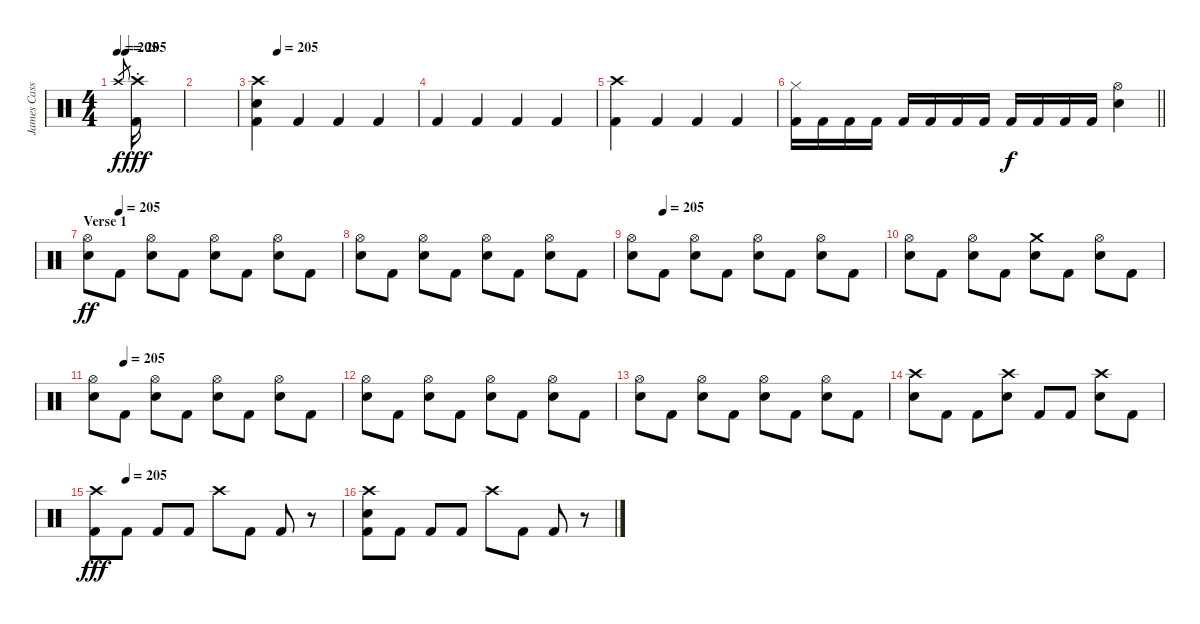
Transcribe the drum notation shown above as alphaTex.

\track ("James Cassels" "James Cass") {instrument percussion}
\staff {score}
\articulation defaults
\ts (4 4)
\tempo 205
\tempo (205 0.125)
\clef neutral
\ks c "Crash high (hit)".8{gr dy f}
("Crash high (hit)"{st} "Kick (hit) 2").16{dy fff} |
|
\tempo (205 0.125)
("Crash high (hit)" "Electric Snare (hit)" "Kick (hit) 2").4 "Kick (hit) 2".4 "Kick (hit) 2".4 "Kick (hit) 2".4 |
"Kick (hit) 2".4 "Kick (hit) 2".4 "Kick (hit) 2".4 "Kick (hit) 2".4 |
("Crash high (hit)" "Kick (hit) 2").4 "Kick (hit) 2".4 "Kick (hit) 2".4 "Kick (hit) 2".4 |
\barLineRight lightlight
("Hi-Hat (closed)" "Kick (hit) 2").16 "Kick (hit) 2".16 "Kick (hit) 2".16 "Kick (hit) 2".16 "Kick (hit) 2".16 "Kick (hit) 2".16 "Kick (hit) 2".16 "Kick (hit) 2".16 "Kick (hit) 2".16{dy f} "Kick (hit) 2".16 "Kick (hit) 2".16 "Kick (hit) 2".16 ("Hi-Hat (open)" "Electric Snare (hit)").4 |
\section ("" "Verse 1")
\tempo (205 0.125)
("Hi-Hat (open)" "Electric Snare (hit)").8{dy ff} "Kick (hit) 2".8 ("Hi-Hat (open)" "Electric Snare (hit)").8 "Kick (hit) 2".8 ("Hi-Hat (open)" "Electric Snare (hit)").8 "Kick (hit) 2".8 ("Hi-Hat (open)" "Electric Snare (hit)").8 "Kick (hit) 2".8 |
("Hi-Hat (open)" "Electric Snare (hit)").8 "Kick (hit) 2".8 ("Hi-Hat (open)" "Electric Snare (hit)").8 "Kick (hit) 2".8 ("Hi-Hat (open)" "Electric Snare (hit)").8 "Kick (hit) 2".8 ("Hi-Hat (open)" "Electric Snare (hit)").8 "Kick (hit) 2".8 |
\tempo (205 0.125)
("Hi-Hat (open)" "Electric Snare (hit)").8 "Kick (hit) 2".8 ("Hi-Hat (open)" "Electric Snare (hit)").8 "Kick (hit) 2".8 ("Hi-Hat (open)" "Electric Snare (hit)").8 "Kick (hit) 2".8 ("Hi-Hat (open)" "Electric Snare (hit)").8 "Kick (hit) 2".8 |
("Hi-Hat (open)" "Electric Snare (hit)").8 "Kick (hit) 2".8 ("Hi-Hat (open)" "Electric Snare (hit)").8 "Kick (hit) 2".8 ("Crash medium (hit)" "Electric Snare (hit)").8 "Kick (hit) 2".8 ("Hi-Hat (open)" "Electric Snare (hit)").8 "Kick (hit) 2".8 |
\tempo (205 0.125)
("Hi-Hat (open)" "Electric Snare (hit)").8 "Kick (hit) 2".8 ("Hi-Hat (open)" "Electric Snare (hit)").8 "Kick (hit) 2".8 ("Hi-Hat (open)" "Electric Snare (hit)").8 "Kick (hit) 2".8 ("Hi-Hat (open)" "Electric Snare (hit)").8 "Kick (hit) 2".8 |
("Hi-Hat (open)" "Electric Snare (hit)").8 "Kick (hit) 2".8 ("Hi-Hat (open)" "Electric Snare (hit)").8 "Kick (hit) 2".8 ("Hi-Hat (open)" "Electric Snare (hit)").8 "Kick (hit) 2".8 ("Hi-Hat (open)" "Electric Snare (hit)").8 "Kick (hit) 2".8 |
("Hi-Hat (open)" "Electric Snare (hit)").8 "Kick (hit) 2".8 ("Hi-Hat (open)" "Electric Snare (hit)").8 "Kick (hit) 2".8 ("Hi-Hat (open)" "Electric Snare (hit)").8 "Kick (hit) 2".8 ("Hi-Hat (open)" "Electric Snare (hit)").8 "Kick (hit) 2".8 |
("Crash high (hit)" "Electric Snare (hit)").8 "Kick (hit) 2".8 "Kick (hit) 2".8 ("Crash high (hit)" "Electric Snare (hit)").8 "Kick (hit) 2".8 "Kick (hit) 2".8 ("Crash high (hit)" "Electric Snare (hit)").8 "Kick (hit) 2".8 |
\tempo (205 0.125)
("Crash high (hit)" "Kick (hit) 2").8{dy fff} "Kick (hit) 2".8 "Kick (hit) 2".8 "Kick (hit) 2".8 "Crash high (hit)".8 "Kick (hit) 2".8 "Kick (hit) 2".8 r.8 |
("Crash high (hit)" "Electric Snare (hit)" "Kick (hit) 2").8 "Kick (hit) 2".8 "Kick (hit) 2".8 "Kick (hit) 2".8 "Crash high (hit)".8 "Kick (hit) 2".8 "Kick (hit) 2".8 r.8
